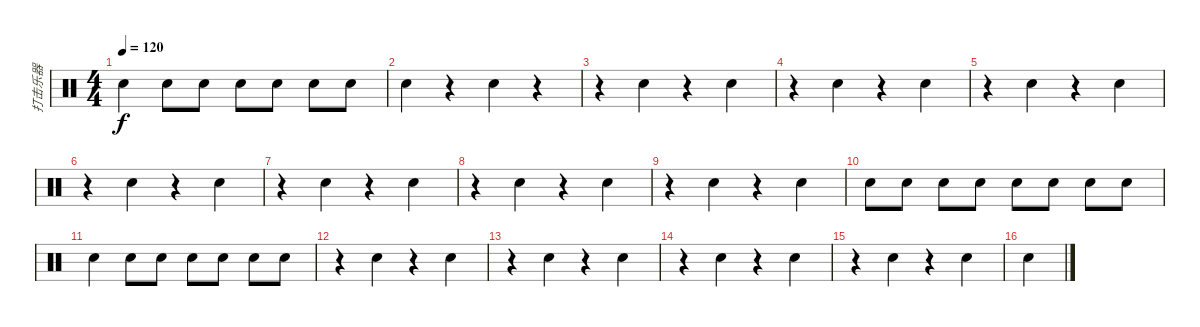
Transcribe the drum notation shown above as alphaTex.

\track ("打击乐器" "打击乐器") {instrument percussion}
\staff {score}
\articulation defaults
\ts (4 4)
\tempo 120
\clef neutral
\ks c "Electric Snare (hit)".4{dy f} "Electric Snare (hit)".8 "Electric Snare (hit)".8 "Electric Snare (hit)".8 "Electric Snare (hit)".8 "Electric Snare (hit)".8 "Electric Snare (hit)".8
|
"Electric Snare (hit)".4 r.4 "Electric Snare (hit)".4 r.4 |
r.4 "Electric Snare (hit)".4 r.4 "Electric Snare (hit)".4 |
r.4 "Electric Snare (hit)".4 r.4 "Electric Snare (hit)".4 |
r.4 "Electric Snare (hit)".4 r.4 "Electric Snare (hit)".4 |
r.4 "Electric Snare (hit)".4 r.4 "Electric Snare (hit)".4 |
r.4 "Electric Snare (hit)".4 r.4 "Electric Snare (hit)".4 |
r.4 "Electric Snare (hit)".4 r.4 "Electric Snare (hit)".4 |
r.4 "Electric Snare (hit)".4 r.4 "Electric Snare (hit)".4 |
"Electric Snare (hit)".8 "Electric Snare (hit)".8 "Electric Snare (hit)".8 "Electric Snare (hit)".8 "Electric Snare (hit)".8 "Electric Snare (hit)".8 "Electric Snare (hit)".8 "Electric Snare (hit)".8 |
"Electric Snare (hit)".4 "Electric Snare (hit)".8 "Electric Snare (hit)".8 "Electric Snare (hit)".8 "Electric Snare (hit)".8 "Electric Snare (hit)".8 "Electric Snare (hit)".8 |
r.4 "Electric Snare (hit)".4 r.4 "Electric Snare (hit)".4 |
r.4 "Electric Snare (hit)".4 r.4 "Electric Snare (hit)".4 |
r.4 "Electric Snare (hit)".4 r.4 "Electric Snare (hit)".4 |
r.4 "Electric Snare (hit)".4 r.4 "Electric Snare (hit)".4 |
"Electric Snare (hit)".4
